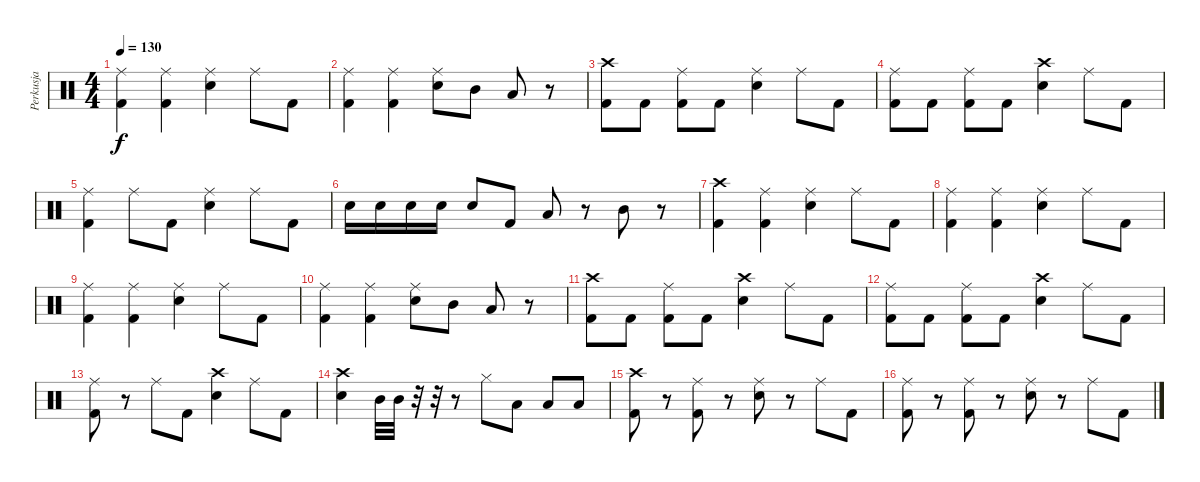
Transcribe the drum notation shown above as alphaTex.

\track ("Perkusja" "Perkusja") {instrument percussion}
\staff {score}
\articulation defaults
\ts (4 4)
\tempo 130
\clef neutral
\ks c
("Ride (middle)" "Kick (hit) 2").4{dy f} ("Ride (middle)" "Kick (hit) 2").4 ("Ride (middle)" "Snare (hit) 2").4 "Ride (middle)".8 "Kick (hit) 2".8 |
("Ride (middle)" "Kick (hit) 2").4 ("Ride (middle)" "Kick (hit) 2").4 ("Ride (middle)" "Snare (hit) 2").8 "Mid Tom (hit)".8 "Low Tom (hit)".8 r.8 |
("Crash high (hit)" "Kick (hit) 2").8 "Kick (hit) 2".8 ("Ride (middle)" "Kick (hit) 2").8 "Kick (hit) 2".8 ("Ride (middle)" "Snare (hit) 2").4 "Ride (middle)".8 "Kick (hit) 2".8 |
("Ride (middle)" "Kick (hit) 2").8 "Kick (hit) 2".8 ("Ride (middle)" "Kick (hit) 2").8 "Kick (hit) 2".8 ("Crash high (hit)" "Snare (hit) 2").4 "Ride (middle)".8 "Kick (hit) 2".8 |
("Ride (middle)" "Kick (hit) 2").4 "Ride (middle)".8 "Kick (hit) 2".8 ("Ride (middle)" "Snare (hit) 2").4 "Ride (middle)".8 "Kick (hit) 2".8 |
"Snare (hit) 2".16 "Snare (hit) 2".16 "Snare (hit) 2".16 "Snare (hit) 2".16 "Snare (hit) 2".8 "Kick (hit) 2".8 "Low Tom (hit)".8 r.8 "Mid Tom (hit)".8 r.8 |
("Crash high (hit)" "Kick (hit) 2").4 ("Ride (middle)" "Kick (hit) 2").4 ("Ride (middle)" "Snare (hit) 2").4 "Ride (middle)".8 "Kick (hit) 2".8 |
("Ride (middle)" "Kick (hit) 2").4 ("Ride (middle)" "Kick (hit) 2").4 ("Ride (middle)" "Snare (hit) 2").4 "Ride (middle)".8 "Kick (hit) 2".8 |
("Ride (middle)" "Kick (hit) 2").4 ("Ride (middle)" "Kick (hit) 2").4 ("Ride (middle)" "Snare (hit) 2").4 "Ride (middle)".8 "Kick (hit) 2".8 |
("Ride (middle)" "Kick (hit) 2").4 ("Ride (middle)" "Kick (hit) 2").4 ("Ride (middle)" "Snare (hit) 2").8 "Mid Tom (hit)".8 "Low Tom (hit)".8 r.8 |
("Crash high (hit)" "Kick (hit) 2").8 "Kick (hit) 2".8 ("Ride (middle)" "Kick (hit) 2").8 "Kick (hit) 2".8 ("Crash high (hit)" "Snare (hit) 2").4 "Ride (middle)".8 "Kick (hit) 2".8 |
("Ride (middle)" "Kick (hit) 2").8 "Kick (hit) 2".8 ("Ride (middle)" "Kick (hit) 2").8 "Kick (hit) 2".8 ("Crash high (hit)" "Snare (hit) 2").4 "Ride (middle)".8 "Kick (hit) 2".8 |
("Ride (middle)" "Kick (hit) 2").8 r.8 "Ride (middle)".8 "Kick (hit) 2".8 ("Crash high (hit)" "Snare (hit) 2").4 "Ride (middle)".8 "Kick (hit) 2".8 |
("Crash high (hit)" "Snare (hit) 2").4 "Mid Tom (hit)".32 "Mid Tom (hit)".32 r.32 r.32 r.8 "Hi-Hat (closed)".8 "Low Tom (hit)".8 "Low Tom (hit)".8 "Low Tom (hit)".8 |
("Crash high (hit)" "Kick (hit) 2").8 r.8 ("Ride (middle)" "Kick (hit) 2").8 r.8 ("Ride (middle)" "Snare (hit) 2").8 r.8 "Ride (middle)".8 "Kick (hit) 2".8 |
("Ride (middle)" "Kick (hit) 2").8 r.8 ("Ride (middle)" "Kick (hit) 2").8 r.8 ("Ride (middle)" "Snare (hit) 2").8 r.8 "Ride (middle)".8 "Kick (hit) 2".8
